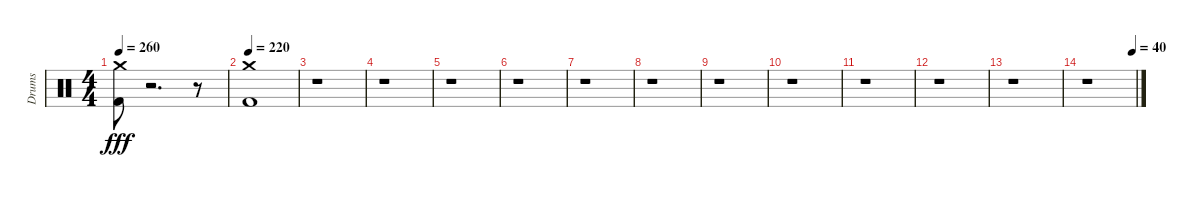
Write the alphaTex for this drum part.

\track ("Drums" "Drums") {instrument percussion}
\staff {score}
\articulation defaults
\ts (4 4)
\tempo 260
\clef neutral
\ks c
("Kick (hit) 2" "Crash medium (hit)").8{dy fff} r.2{d} r.8 |
\tempo 220
("Kick (hit) 2" "Crash medium (hit)").1 |
r.1 |
r.1 |
r.1 |
r.1 |
r.1 |
r.1 |
r.1 |
r.1 |
r.1 |
r.1 |
r.1 |
\tempo (40 0.9375)
r.1
